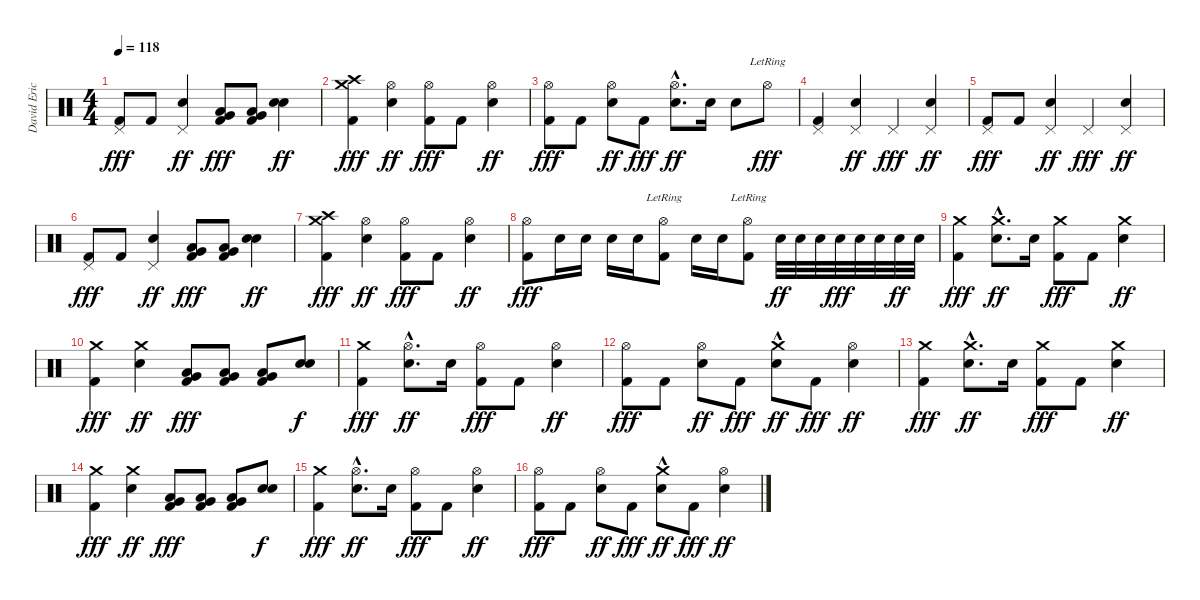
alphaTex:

\track ("David Eric Grohl" "David Eric") {instrument percussion}
\staff {score}
\articulation defaults
\ts (4 4)
\tempo 118
\clef neutral
\ks c
("Pedal Hi-Hat (hit)" "Kick (hit) 2").8{dy fff} "Kick (hit) 2".8 ("Pedal Hi-Hat (hit)" "Electric Snare (hit)").4{dy ff} ("Low Tom (hit)" "Very Low Tom (hit)" "Kick (hit) 2").8{dy fff} ("Low Tom (hit)" "Very Low Tom (hit)" "Kick (hit) 2").8 ("Electric Snare (hit)" "Electric Snare (hit)").4{dy ff} |
("Crash medium (hit)" "Crash high (hit)" "Kick (hit) 2").4{dy fff} ("Hi-Hat (open)" "Electric Snare (hit)").4{dy ff} ("Hi-Hat (open)" "Kick (hit) 2").8{dy fff} "Kick (hit) 2".8 ("Hi-Hat (open)" "Electric Snare (hit)").4{dy ff} |
("Hi-Hat (open)" "Kick (hit) 2").8{dy fff} "Kick (hit) 2".8 ("Hi-Hat (open)" "Electric Snare (hit)").8{dy ff} "Kick (hit) 2".8{dy fff} ("Hi-Hat (open)"{hac} "Electric Snare (hit)"{hac}).8{d dy ff} "Electric Snare (hit)".16 "Electric Snare (hit)".8 "Hi-Hat (open)"{lr}.8{dy fff} |
("Pedal Hi-Hat (hit)" "Kick (hit) 2").4 ("Pedal Hi-Hat (hit)" "Electric Snare (hit)").4{dy ff} "Pedal Hi-Hat (hit)".4{dy fff} ("Pedal Hi-Hat (hit)" "Electric Snare (hit)").4{dy ff} |
("Pedal Hi-Hat (hit)" "Kick (hit) 2").8{dy fff} "Kick (hit) 2".8 ("Pedal Hi-Hat (hit)" "Electric Snare (hit)").4{dy ff} "Pedal Hi-Hat (hit)".4{dy fff} ("Pedal Hi-Hat (hit)" "Electric Snare (hit)").4{dy ff} |
("Pedal Hi-Hat (hit)" "Kick (hit) 2").8{dy fff} "Kick (hit) 2".8 ("Pedal Hi-Hat (hit)" "Electric Snare (hit)").4{dy ff} ("Low Tom (hit)" "Very Low Tom (hit)" "Kick (hit) 2").8{dy fff} ("Low Tom (hit)" "Very Low Tom (hit)" "Kick (hit) 2").8 ("Electric Snare (hit)" "Electric Snare (hit)").4{dy ff} |
("Crash medium (hit)" "Crash high (hit)" "Kick (hit) 2").4{dy fff} ("Hi-Hat (open)" "Electric Snare (hit)").4{dy ff} ("Hi-Hat (open)" "Kick (hit) 2").8{dy fff} "Kick (hit) 2".8 ("Hi-Hat (open)" "Electric Snare (hit)").4{dy ff} |
("Hi-Hat (open)" "Kick (hit) 2").8{dy fff} "Electric Snare (hit)".16 "Electric Snare (hit)".16 "Electric Snare (hit)".16 "Electric Snare (hit)".16 ("Hi-Hat (open)"{lr} "Kick (hit) 2").8 "Electric Snare (hit)".16 "Electric Snare (hit)".16 ("Hi-Hat (open)"{lr} "Kick (hit) 2").8 "Electric Snare (hit)".32{dy ff} "Electric Snare (hit)".32 "Electric Snare (hit)".32 "Electric Snare (hit)".32{dy fff} "Electric Snare (hit)".32 "Electric Snare (hit)".32 "Electric Snare (hit)".32{dy ff} "Electric Snare (hit)".32 |
("Crash medium (hit)" "Kick (hit) 2").4{dy fff} ("Crash medium (hit)"{hac} "Electric Snare (hit)"{hac}).8{d dy ff} "Electric Snare (hit)".16 ("Crash medium (hit)" "Kick (hit) 2").8{dy fff} "Kick (hit) 2".8 ("Crash medium (hit)" "Electric Snare (hit)").4{dy ff} |
("Crash medium (hit)" "Kick (hit) 2").4{dy fff} ("Crash medium (hit)" "Electric Snare (hit)").4{dy ff} ("Low Tom (hit)" "Very Low Tom (hit)" "Kick (hit) 2").8{dy fff} ("Low Tom (hit)" "Very Low Tom (hit)" "Kick (hit) 2").8 ("Low Tom (hit)" "Very Low Tom (hit)" "Kick (hit) 2").8 ("Electric Snare (hit)" "Electric Snare (hit)").8{dy f} |
("Crash medium (hit)" "Kick (hit) 2").4{dy fff} ("Hi-Hat (open)"{hac} "Electric Snare (hit)"{hac}).8{d dy ff} "Electric Snare (hit)".16 ("Hi-Hat (open)" "Kick (hit) 2").8{dy fff} "Kick (hit) 2".8 ("Hi-Hat (open)" "Electric Snare (hit)").4{dy ff} |
("Hi-Hat (open)" "Kick (hit) 2").8{dy fff} "Kick (hit) 2".8 ("Hi-Hat (open)" "Electric Snare (hit)").8{dy ff} "Kick (hit) 2".8{dy fff} ("Crash medium (hit)"{hac} "Electric Snare (hit)").8{dy ff} "Kick (hit) 2".8{dy fff} ("Hi-Hat (open)" "Electric Snare (hit)").4{dy ff} |
("Crash medium (hit)" "Kick (hit) 2").4{dy fff} ("Crash medium (hit)"{hac} "Electric Snare (hit)"{hac}).8{d dy ff} "Electric Snare (hit)".16 ("Crash medium (hit)" "Kick (hit) 2").8{dy fff} "Kick (hit) 2".8 ("Crash medium (hit)" "Electric Snare (hit)").4{dy ff} |
("Crash medium (hit)" "Kick (hit) 2").4{dy fff} ("Crash medium (hit)" "Electric Snare (hit)").4{dy ff} ("Low Tom (hit)" "Very Low Tom (hit)" "Kick (hit) 2").8{dy fff} ("Low Tom (hit)" "Very Low Tom (hit)" "Kick (hit) 2").8 ("Low Tom (hit)" "Very Low Tom (hit)" "Kick (hit) 2").8 ("Electric Snare (hit)" "Electric Snare (hit)").8{dy f} |
("Crash medium (hit)" "Kick (hit) 2").4{dy fff} ("Hi-Hat (open)"{hac} "Electric Snare (hit)"{hac}).8{d dy ff} "Electric Snare (hit)".16 ("Hi-Hat (open)" "Kick (hit) 2").8{dy fff} "Kick (hit) 2".8 ("Hi-Hat (open)" "Electric Snare (hit)").4{dy ff} |
("Hi-Hat (open)" "Kick (hit) 2").8{dy fff} "Kick (hit) 2".8 ("Hi-Hat (open)" "Electric Snare (hit)").8{dy ff} "Kick (hit) 2".8{dy fff} ("Crash medium (hit)"{hac} "Electric Snare (hit)").8{dy ff} "Kick (hit) 2".8{dy fff} ("Hi-Hat (open)" "Electric Snare (hit)").4{dy ff}
